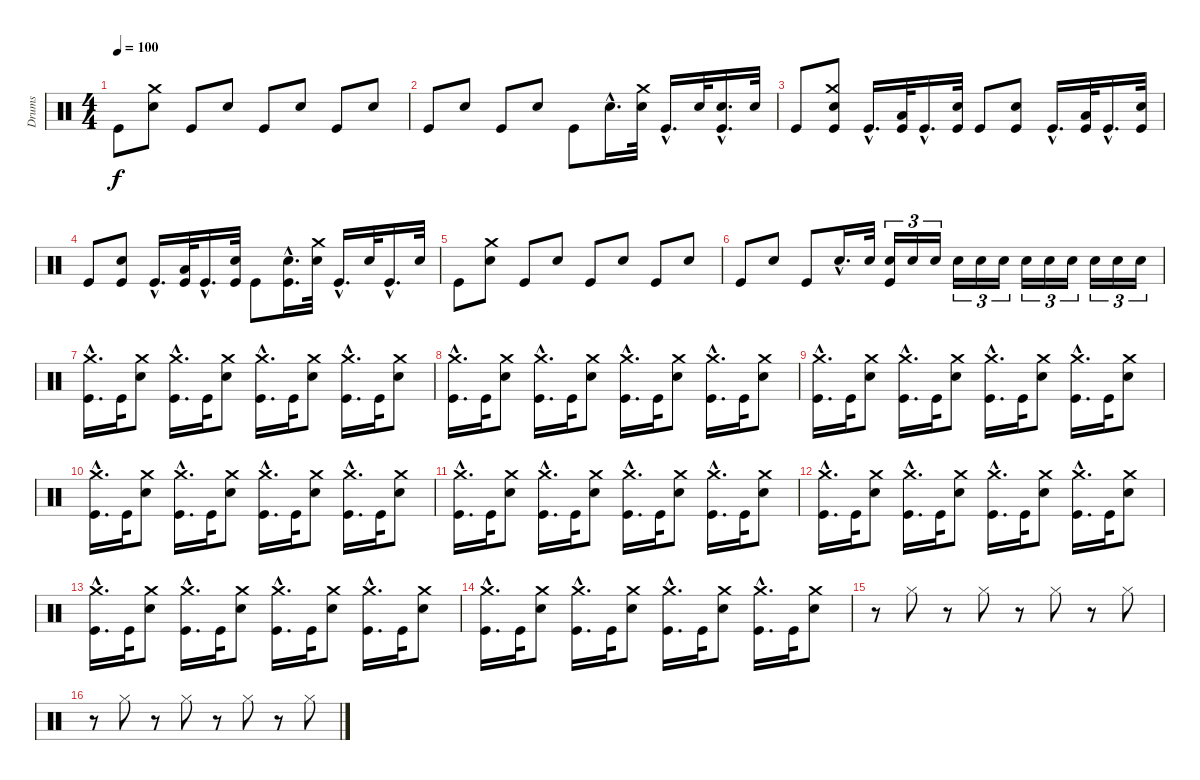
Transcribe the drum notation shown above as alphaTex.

\track ("Drums" "Drums") {instrument percussion}
\staff {score}
\articulation defaults
\ts (4 4)
\tempo 100
\clef neutral
\ks c "Kick (hit)".8{dy f}
("Crash medium (hit)" "Electric Snare (hit)").8 "Kick (hit)".8 "Electric Snare (hit)".8 "Kick (hit)".8 "Electric Snare (hit)".8 "Kick (hit)".8 "Electric Snare (hit)".8 |
"Kick (hit)".8 "Electric Snare (hit)".8 "Kick (hit)".8 "Electric Snare (hit)".8 "Kick (hit)".8 "Electric Snare (hit)"{hac}.16{d} ("Crash medium (hit)" "Electric Snare (hit)").32 "Kick (hit)"{hac}.16{d} "Electric Snare (hit)".32 ("Electric Snare (hit)"{hac} "Kick (hit)"{hac}).16{d} "Electric Snare (hit)".32 |
"Kick (hit)".8 ("Crash medium (hit)" "Electric Snare (hit)" "Kick (hit)").8 "Kick (hit)"{hac}.16{d} ("Low Floor Tom (hit)" "Kick (hit)").32 "Kick (hit)"{hac}.16{d} ("Electric Snare (hit)" "Kick (hit)").32 "Kick (hit)".8 ("Electric Snare (hit)" "Kick (hit)").8 "Kick (hit)"{hac}.16{d} ("Low Floor Tom (hit)" "Kick (hit)").32 "Kick (hit)"{hac}.16{d} ("Electric Snare (hit)" "Kick (hit)").32 |
"Kick (hit)".8 ("Electric Snare (hit)" "Kick (hit)").8 "Kick (hit)"{hac}.16{d} ("Low Floor Tom (hit)" "Kick (hit)").32 "Kick (hit)"{hac}.16{d} ("Electric Snare (hit)" "Kick (hit)").32 "Kick (hit)".8 ("Electric Snare (hit)"{hac} "Kick (hit)"{hac}).16{d} ("Crash medium (hit)" "Electric Snare (hit)").32 "Kick (hit)"{hac}.16{d} "Electric Snare (hit)".32 "Kick (hit)"{hac}.16{d} "Electric Snare (hit)".32 |
"Kick (hit)".8 ("Crash medium (hit)" "Electric Snare (hit)").8 "Kick (hit)".8 "Electric Snare (hit)".8 "Kick (hit)".8 "Electric Snare (hit)".8 "Kick (hit)".8 "Electric Snare (hit)".8 |
"Kick (hit)".8 "Electric Snare (hit)".8 "Kick (hit)".8 "Electric Snare (hit)"{hac}.16{d} "Electric Snare (hit)".32 ("Electric Snare (hit)" "Kick (hit)").16{tu (3 2)} "Electric Snare (hit)".16{tu (3 2)} "Electric Snare (hit)".16{tu (3 2)} "Electric Snare (hit)".16{tu (3 2)} "Electric Snare (hit)".16{tu (3 2)} "Electric Snare (hit)".16{tu (3 2)} "Electric Snare (hit)".16{tu (3 2)} "Electric Snare (hit)".16{tu (3 2)} "Electric Snare (hit)".16{tu (3 2)} "Electric Snare (hit)".16{tu (3 2)} "Electric Snare (hit)".16{tu (3 2)} "Electric Snare (hit)".16{tu (3 2)} |
("Crash medium (hit)"{hac} "Kick (hit)"{hac}).16{d} "Kick (hit)".32 ("Crash medium (hit)" "Electric Snare (hit)").8 ("Crash medium (hit)"{hac} "Kick (hit)"{hac}).16{d} "Kick (hit)".32 ("Crash medium (hit)" "Electric Snare (hit)").8 ("Crash medium (hit)"{hac} "Kick (hit)"{hac}).16{d} "Kick (hit)".32 ("Crash medium (hit)" "Electric Snare (hit)").8 ("Crash medium (hit)"{hac} "Kick (hit)"{hac}).16{d} "Kick (hit)".32 ("Crash medium (hit)" "Electric Snare (hit)").8 |
("Crash medium (hit)"{hac} "Kick (hit)"{hac}).16{d} "Kick (hit)".32 ("Crash medium (hit)" "Electric Snare (hit)").8 ("Crash medium (hit)"{hac} "Kick (hit)"{hac}).16{d} "Kick (hit)".32 ("Crash medium (hit)" "Electric Snare (hit)").8 ("Crash medium (hit)"{hac} "Kick (hit)"{hac}).16{d} "Kick (hit)".32 ("Crash medium (hit)" "Electric Snare (hit)").8 ("Crash medium (hit)"{hac} "Kick (hit)"{hac}).16{d} "Kick (hit)".32 ("Crash medium (hit)" "Electric Snare (hit)").8 |
("Crash medium (hit)"{hac} "Kick (hit)"{hac}).16{d} "Kick (hit)".32 ("Crash medium (hit)" "Electric Snare (hit)").8 ("Crash medium (hit)"{hac} "Kick (hit)"{hac}).16{d} "Kick (hit)".32 ("Crash medium (hit)" "Electric Snare (hit)").8 ("Crash medium (hit)"{hac} "Kick (hit)"{hac}).16{d} "Kick (hit)".32 ("Crash medium (hit)" "Electric Snare (hit)").8 ("Crash medium (hit)"{hac} "Kick (hit)"{hac}).16{d} "Kick (hit)".32 ("Crash medium (hit)" "Electric Snare (hit)").8 |
("Crash medium (hit)"{hac} "Kick (hit)"{hac}).16{d} "Kick (hit)".32 ("Crash medium (hit)" "Electric Snare (hit)").8 ("Crash medium (hit)"{hac} "Kick (hit)"{hac}).16{d} "Kick (hit)".32 ("Crash medium (hit)" "Electric Snare (hit)").8 ("Crash medium (hit)"{hac} "Kick (hit)"{hac}).16{d} "Kick (hit)".32 ("Crash medium (hit)" "Electric Snare (hit)").8 ("Crash medium (hit)"{hac} "Kick (hit)"{hac}).16{d} "Kick (hit)".32 ("Crash medium (hit)" "Electric Snare (hit)").8 |
("Crash medium (hit)"{hac} "Kick (hit)"{hac}).16{d} "Kick (hit)".32 ("Crash medium (hit)" "Electric Snare (hit)").8 ("Crash medium (hit)"{hac} "Kick (hit)"{hac}).16{d} "Kick (hit)".32 ("Crash medium (hit)" "Electric Snare (hit)").8 ("Crash medium (hit)"{hac} "Kick (hit)"{hac}).16{d} "Kick (hit)".32 ("Crash medium (hit)" "Electric Snare (hit)").8 ("Crash medium (hit)"{hac} "Kick (hit)"{hac}).16{d} "Kick (hit)".32 ("Crash medium (hit)" "Electric Snare (hit)").8 |
("Crash medium (hit)"{hac} "Kick (hit)"{hac}).16{d} "Kick (hit)".32 ("Crash medium (hit)" "Electric Snare (hit)").8 ("Crash medium (hit)"{hac} "Kick (hit)"{hac}).16{d} "Kick (hit)".32 ("Crash medium (hit)" "Electric Snare (hit)").8 ("Crash medium (hit)"{hac} "Kick (hit)"{hac}).16{d} "Kick (hit)".32 ("Crash medium (hit)" "Electric Snare (hit)").8 ("Crash medium (hit)"{hac} "Kick (hit)"{hac}).16{d} "Kick (hit)".32 ("Crash medium (hit)" "Electric Snare (hit)").8 |
("Crash medium (hit)"{hac} "Kick (hit)"{hac}).16{d} "Kick (hit)".32 ("Crash medium (hit)" "Electric Snare (hit)").8 ("Crash medium (hit)"{hac} "Kick (hit)"{hac}).16{d} "Kick (hit)".32 ("Crash medium (hit)" "Electric Snare (hit)").8 ("Crash medium (hit)"{hac} "Kick (hit)"{hac}).16{d} "Kick (hit)".32 ("Crash medium (hit)" "Electric Snare (hit)").8 ("Crash medium (hit)"{hac} "Kick (hit)"{hac}).16{d} "Kick (hit)".32 ("Crash medium (hit)" "Electric Snare (hit)").8 |
("Crash medium (hit)"{hac} "Kick (hit)"{hac}).16{d} "Kick (hit)".32 ("Crash medium (hit)" "Electric Snare (hit)").8 ("Crash medium (hit)"{hac} "Kick (hit)"{hac}).16{d} "Kick (hit)".32 ("Crash medium (hit)" "Electric Snare (hit)").8 ("Crash medium (hit)"{hac} "Kick (hit)"{hac}).16{d} "Kick (hit)".32 ("Crash medium (hit)" "Electric Snare (hit)").8 ("Crash medium (hit)"{hac} "Kick (hit)"{hac}).16{d} "Kick (hit)".32 ("Crash medium (hit)" "Electric Snare (hit)").8 |
r.8 "Hi-Hat (closed)".8 r.8 "Hi-Hat (closed)".8 r.8 "Hi-Hat (closed)".8 r.8 "Hi-Hat (closed)".8 |
r.8 "Hi-Hat (closed)".8 r.8 "Hi-Hat (closed)".8 r.8 "Hi-Hat (closed)".8 r.8 "Hi-Hat (closed)".8
